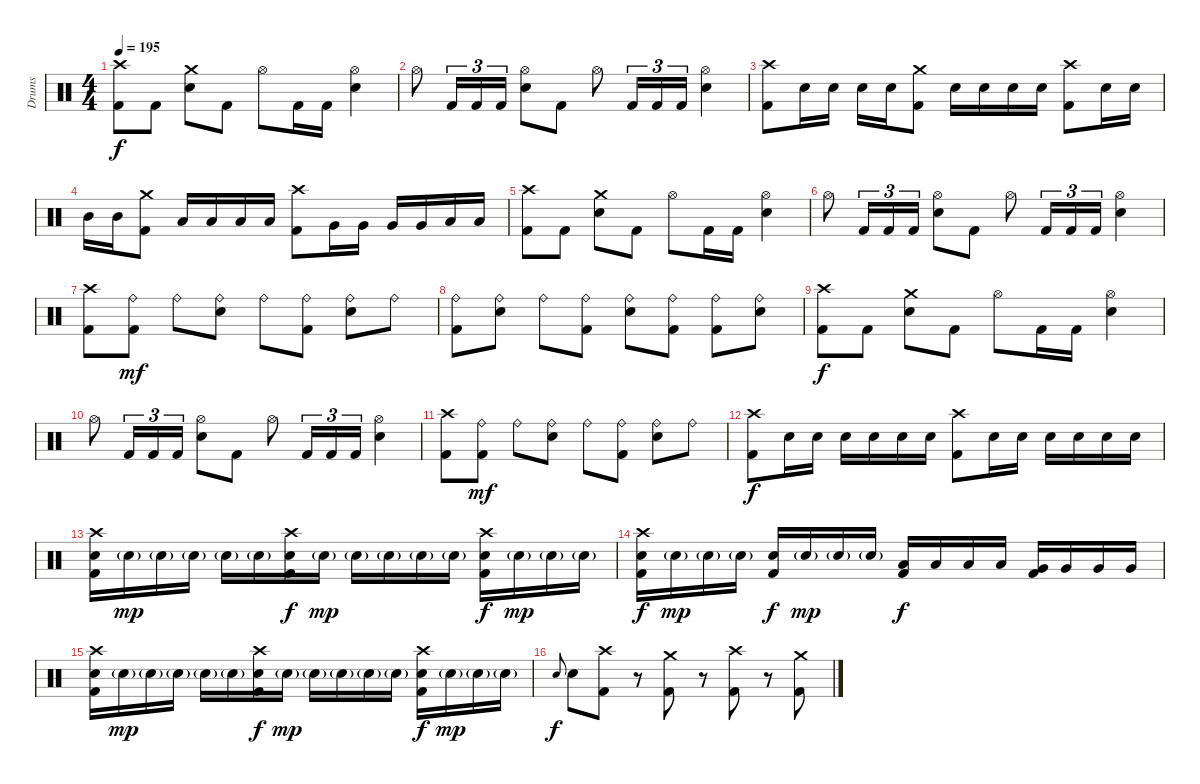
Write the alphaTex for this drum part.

\track ("Drums" "Drums") {instrument percussion}
\staff {score}
\articulation defaults
\ts (4 4)
\tempo 195
\clef neutral
\ks c
("Crash high (hit)" "Kick (hit) 2").8{dy f} "Kick (hit) 2".8 ("Crash medium (hit)" "Electric Snare (hit)").8 "Kick (hit) 2".8 "Hi-Hat (open)".8 "Kick (hit) 2".16 "Kick (hit) 2".16 ("Hi-Hat (open)" "Electric Snare (hit)").4 |
"Hi-Hat (open)".8 "Kick (hit) 2".16{tu (3 2)} "Kick (hit) 2".16{tu (3 2)} "Kick (hit) 2".16{tu (3 2)} ("Hi-Hat (open)" "Electric Snare (hit)").8 "Kick (hit) 2".8 "Hi-Hat (open)".8 "Kick (hit) 2".16{tu (3 2)} "Kick (hit) 2".16{tu (3 2)} "Kick (hit) 2".16{tu (3 2)} ("Hi-Hat (open)" "Electric Snare (hit)").4 |
("Crash high (hit)" "Kick (hit) 2").8 "Electric Snare (hit)".16 "Electric Snare (hit)".16 "Electric Snare (hit)".16 "Electric Snare (hit)".16 ("Crash medium (hit)" "Kick (hit) 2").8 "Electric Snare (hit)".16 "Electric Snare (hit)".16 "Electric Snare (hit)".16 "Electric Snare (hit)".16 ("Crash high (hit)" "Kick (hit) 2").8 "Electric Snare (hit)".16 "Electric Snare (hit)".16 |
"Mid Tom (hit)".16 "Mid Tom (hit)".16 ("Crash medium (hit)" "Kick (hit) 2").8 "Low Tom (hit)".16 "Low Tom (hit)".16 "Low Tom (hit)".16 "Low Tom (hit)".16 ("Crash high (hit)" "Kick (hit) 2").8 "Very Low Tom (hit)".16 "Very Low Tom (hit)".16 "Very Low Tom (hit)".16 "Very Low Tom (hit)".16 "Low Floor Tom (hit)".16 "Low Floor Tom (hit)".16 |
("Crash high (hit)" "Kick (hit) 2").8 "Kick (hit) 2".8 ("Crash medium (hit)" "Electric Snare (hit)").8 "Kick (hit) 2".8 "Hi-Hat (open)".8 "Kick (hit) 2".16 "Kick (hit) 2".16 ("Hi-Hat (open)" "Electric Snare (hit)").4 |
"Hi-Hat (open)".8 "Kick (hit) 2".16{tu (3 2)} "Kick (hit) 2".16{tu (3 2)} "Kick (hit) 2".16{tu (3 2)} ("Hi-Hat (open)" "Electric Snare (hit)").8 "Kick (hit) 2".8 "Hi-Hat (open)".8 "Kick (hit) 2".16{tu (3 2)} "Kick (hit) 2".16{tu (3 2)} "Kick (hit) 2".16{tu (3 2)} ("Hi-Hat (open)" "Electric Snare (hit)").4 |
("Crash high (hit)" "Kick (hit) 2").8 ("Ride (bell)" "Kick (hit) 2").8{dy mf} "Ride (bell)".8 ("Ride (bell)" "Electric Snare (hit)").8 "Ride (bell)".8 ("Ride (bell)" "Kick (hit) 2").8 ("Ride (bell)" "Electric Snare (hit)").8 "Ride (bell)".8 |
("Ride (bell)" "Kick (hit) 2").8 ("Ride (bell)" "Electric Snare (hit)").8 "Ride (bell)".8 ("Ride (bell)" "Kick (hit) 2").8 ("Ride (bell)" "Electric Snare (hit)").8 ("Ride (bell)" "Kick (hit) 2").8 ("Ride (bell)" "Kick (hit) 2").8 ("Ride (bell)" "Electric Snare (hit)").8 |
("Crash high (hit)" "Kick (hit) 2").8{dy f} "Kick (hit) 2".8 ("Crash medium (hit)" "Electric Snare (hit)").8 "Kick (hit) 2".8 "Hi-Hat (open)".8 "Kick (hit) 2".16 "Kick (hit) 2".16 ("Hi-Hat (open)" "Electric Snare (hit)").4 |
"Hi-Hat (open)".8 "Kick (hit) 2".16{tu (3 2)} "Kick (hit) 2".16{tu (3 2)} "Kick (hit) 2".16{tu (3 2)} ("Hi-Hat (open)" "Electric Snare (hit)").8 "Kick (hit) 2".8 "Hi-Hat (open)".8 "Kick (hit) 2".16{tu (3 2)} "Kick (hit) 2".16{tu (3 2)} "Kick (hit) 2".16{tu (3 2)} ("Hi-Hat (open)" "Electric Snare (hit)").4 |
("Crash high (hit)" "Kick (hit) 2").8 ("Ride (bell)" "Kick (hit) 2").8{dy mf} "Ride (bell)".8 ("Ride (bell)" "Electric Snare (hit)").8 "Ride (bell)".8 ("Ride (bell)" "Kick (hit) 2").8 ("Ride (bell)" "Electric Snare (hit)").8 "Ride (bell)".8 |
("Crash high (hit)" "Kick (hit) 2").8{dy f} "Electric Snare (hit)".16 "Electric Snare (hit)".16 "Electric Snare (hit)".16 "Electric Snare (hit)".16 "Electric Snare (hit)".16 "Electric Snare (hit)".16 ("Crash high (hit)" "Kick (hit) 2").8 "Electric Snare (hit)".16 "Electric Snare (hit)".16 "Electric Snare (hit)".16 "Electric Snare (hit)".16 "Electric Snare (hit)".16 "Electric Snare (hit)".16 |
("Crash high (hit)" "Electric Snare (hit)" "Kick (hit) 2").16 "Electric Snare (hit)"{g}.16{dy mp} "Electric Snare (hit)"{g}.16 "Electric Snare (hit)"{g}.16 "Electric Snare (hit)"{g}.16 "Electric Snare (hit)"{g}.16 ("Crash high (hit)" "Electric Snare (hit)" "Kick (hit) 2").16{dy f} "Electric Snare (hit)"{g}.16{dy mp} "Electric Snare (hit)"{g}.16 "Electric Snare (hit)"{g}.16 "Electric Snare (hit)"{g}.16 "Electric Snare (hit)"{g}.16 ("Crash high (hit)" "Electric Snare (hit)" "Kick (hit) 2").16{dy f} "Electric Snare (hit)"{g}.16{dy mp} "Electric Snare (hit)"{g}.16 "Electric Snare (hit)"{g}.16 |
("Crash high (hit)" "Electric Snare (hit)" "Kick (hit) 2").16{dy f} "Electric Snare (hit)"{g}.16{dy mp} "Electric Snare (hit)"{g}.16 "Electric Snare (hit)"{g}.16 ("Electric Snare (hit)" "Kick (hit) 2").16{dy f} "Electric Snare (hit)"{g}.16{dy mp} "Electric Snare (hit)"{g}.16 "Electric Snare (hit)"{g}.16 ("Low Tom (hit)" "Kick (hit) 2").16{dy f} "Low Tom (hit)".16 "Low Tom (hit)".16 "Low Tom (hit)".16 ("Very Low Tom (hit)" "Kick (hit) 2").16 "Very Low Tom (hit)".16 "Very Low Tom (hit)".16 "Very Low Tom (hit)".16 |
("Crash high (hit)" "Electric Snare (hit)" "Kick (hit) 2").16 "Electric Snare (hit)"{g}.16{dy mp} "Electric Snare (hit)"{g}.16 "Electric Snare (hit)"{g}.16 "Electric Snare (hit)"{g}.16 "Electric Snare (hit)"{g}.16 ("Crash high (hit)" "Electric Snare (hit)" "Kick (hit) 2").16{dy f} "Electric Snare (hit)"{g}.16{dy mp} "Electric Snare (hit)"{g}.16 "Electric Snare (hit)"{g}.16 "Electric Snare (hit)"{g}.16 "Electric Snare (hit)"{g}.16 ("Crash high (hit)" "Electric Snare (hit)" "Kick (hit) 2").16{dy f} "Electric Snare (hit)"{g}.16{dy mp} "Electric Snare (hit)"{g}.16 "Electric Snare (hit)"{g}.16 |
"Electric Snare (hit)".8{gr onbeat dy f} "Electric Snare (hit)".8 ("Crash high (hit)" "Kick (hit) 2").8 r.8 ("Crash medium (hit)" "Kick (hit) 2").8 r.8 ("Crash high (hit)" "Kick (hit) 2").8 r.8 ("Crash medium (hit)" "Kick (hit) 2").8
